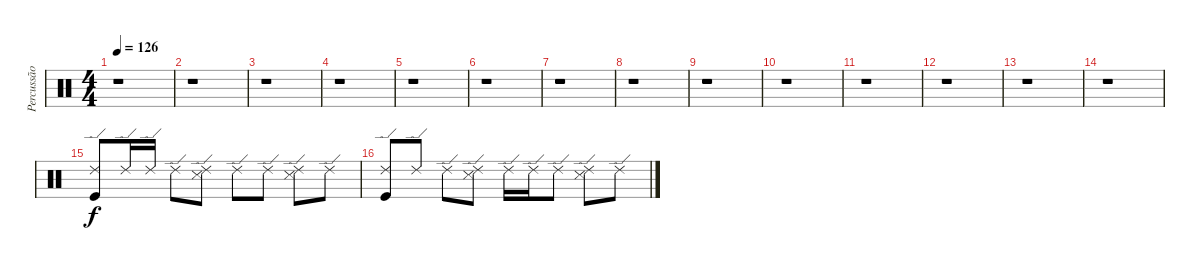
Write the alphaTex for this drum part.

\track ("Percussão" "Percussão") {instrument percussion}
\staff {score}
\articulation defaults
\ts (4 4)
\tempo 126
\clef neutral
\ks c
r.1{dy f} |
r.1 |
r.1 |
r.1 |
r.1 |
r.1 |
r.1 |
r.1 |
r.1 |
r.1 |
r.1 |
r.1 |
r.1 |
r.1 |
("Ride (edge) 2" "Kick (hit)").8 "Ride (edge) 2".16 "Ride (edge) 2".16 "Ride (edge) 2".8 ("Ride (edge) 2" "Snare (side stick) 3").8 "Ride (edge) 2".8 "Ride (edge) 2".8 ("Ride (edge) 2" "Snare (side stick) 3").8 "Ride (edge) 2".8 |
("Ride (edge) 2" "Kick (hit)").8 "Ride (edge) 2".8 "Ride (edge) 2".8 ("Ride (edge) 2" "Snare (side stick) 3").8 "Ride (edge) 2".16 "Ride (edge) 2".16 "Ride (edge) 2".8 ("Ride (edge) 2" "Snare (side stick) 3").8 "Ride (edge) 2".8
